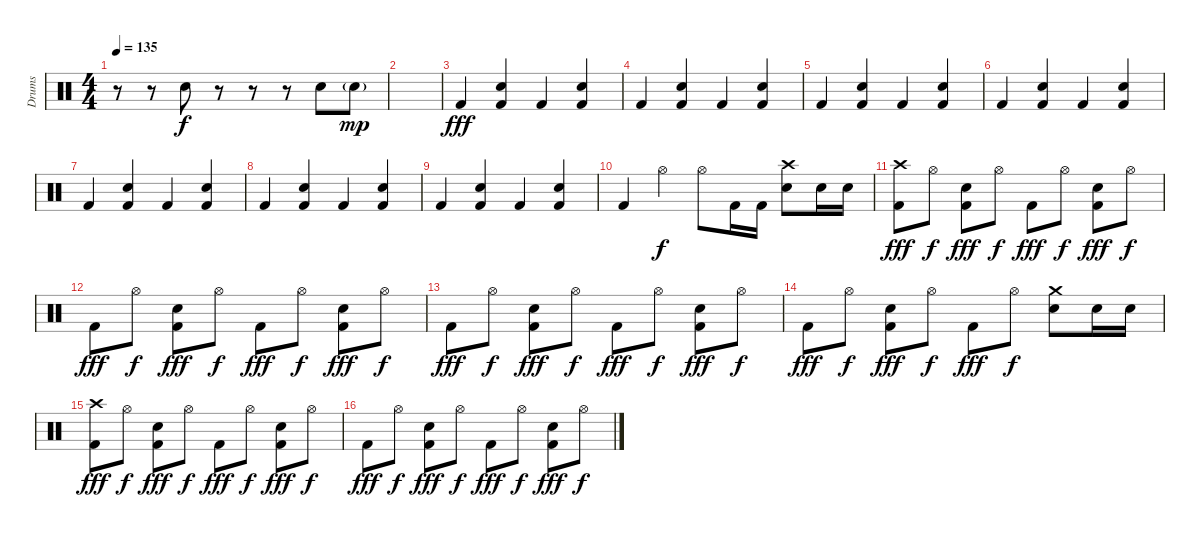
\track ("Drums" "Drums") {instrument percussion}
\staff {score}
\articulation defaults
\ts (4 4)
\tempo 135
\clef neutral
\ks c
r.8{dy mp} r.8 "Hand Clap (hit)".8{dy f} r.8 r.8 r.8 "Hand Clap (hit)".8 "Hand Clap (hit)"{g}.8{dy mp} |
|
"Kick (hit) 2".4{dy fff} ("Kick (hit) 2" "Snare (hit) 2").4 "Kick (hit) 2".4 ("Kick (hit) 2" "Snare (hit) 2").4 |
"Kick (hit) 2".4 ("Kick (hit) 2" "Snare (hit) 2").4 "Kick (hit) 2".4 ("Kick (hit) 2" "Snare (hit) 2").4 |
"Kick (hit) 2".4 ("Kick (hit) 2" "Snare (hit) 2").4 "Kick (hit) 2".4 ("Kick (hit) 2" "Snare (hit) 2").4 |
"Kick (hit) 2".4 ("Kick (hit) 2" "Snare (hit) 2").4 "Kick (hit) 2".4 ("Kick (hit) 2" "Snare (hit) 2").4 |
"Kick (hit) 2".4 ("Kick (hit) 2" "Snare (hit) 2").4 "Kick (hit) 2".4 ("Kick (hit) 2" "Snare (hit) 2").4 |
"Kick (hit) 2".4 ("Kick (hit) 2" "Snare (hit) 2").4 "Kick (hit) 2".4 ("Kick (hit) 2" "Snare (hit) 2").4 |
"Kick (hit) 2".4 ("Kick (hit) 2" "Snare (hit) 2").4 "Kick (hit) 2".4 ("Kick (hit) 2" "Snare (hit) 2").4 |
"Kick (hit) 2".4 "Hi-Hat (open)".4{dy f} "Hi-Hat (open)".8 "Kick (hit) 2".16 "Kick (hit) 2".16 ("Snare (hit) 2" "Crash high (hit)").8 "Snare (hit) 2".16 "Snare (hit) 2".16 |
("Kick (hit) 2" "Crash high (hit)").8{dy fff} "Hi-Hat (open)".8{dy f} ("Kick (hit) 2" "Snare (hit) 2").8{dy fff} "Hi-Hat (open)".8{dy f} "Kick (hit) 2".8{dy fff} "Hi-Hat (open)".8{dy f} ("Kick (hit) 2" "Snare (hit) 2").8{dy fff} "Hi-Hat (open)".8{dy f} |
"Kick (hit) 2".8{dy fff} "Hi-Hat (open)".8{dy f} ("Kick (hit) 2" "Snare (hit) 2").8{dy fff} "Hi-Hat (open)".8{dy f} "Kick (hit) 2".8{dy fff} "Hi-Hat (open)".8{dy f} ("Kick (hit) 2" "Snare (hit) 2").8{dy fff} "Hi-Hat (open)".8{dy f} |
"Kick (hit) 2".8{dy fff} "Hi-Hat (open)".8{dy f} ("Kick (hit) 2" "Snare (hit) 2").8{dy fff} "Hi-Hat (open)".8{dy f} "Kick (hit) 2".8{dy fff} "Hi-Hat (open)".8{dy f} ("Kick (hit) 2" "Snare (hit) 2").8{dy fff} "Hi-Hat (open)".8{dy f} |
"Kick (hit) 2".8{dy fff} "Hi-Hat (open)".8{dy f} ("Kick (hit) 2" "Snare (hit) 2").8{dy fff} "Hi-Hat (open)".8{dy f} "Kick (hit) 2".8{dy fff} "Hi-Hat (open)".8{dy f} ("Snare (hit) 2" "Crash medium (hit)").8 "Snare (hit) 2".16 "Snare (hit) 2".16 |
("Kick (hit) 2" "Crash high (hit)").8{dy fff} "Hi-Hat (open)".8{dy f} ("Kick (hit) 2" "Snare (hit) 2").8{dy fff} "Hi-Hat (open)".8{dy f} "Kick (hit) 2".8{dy fff} "Hi-Hat (open)".8{dy f} ("Kick (hit) 2" "Snare (hit) 2").8{dy fff} "Hi-Hat (open)".8{dy f} |
"Kick (hit) 2".8{dy fff} "Hi-Hat (open)".8{dy f} ("Kick (hit) 2" "Snare (hit) 2").8{dy fff} "Hi-Hat (open)".8{dy f} "Kick (hit) 2".8{dy fff} "Hi-Hat (open)".8{dy f} ("Kick (hit) 2" "Snare (hit) 2").8{dy fff} "Hi-Hat (open)".8{dy f}
